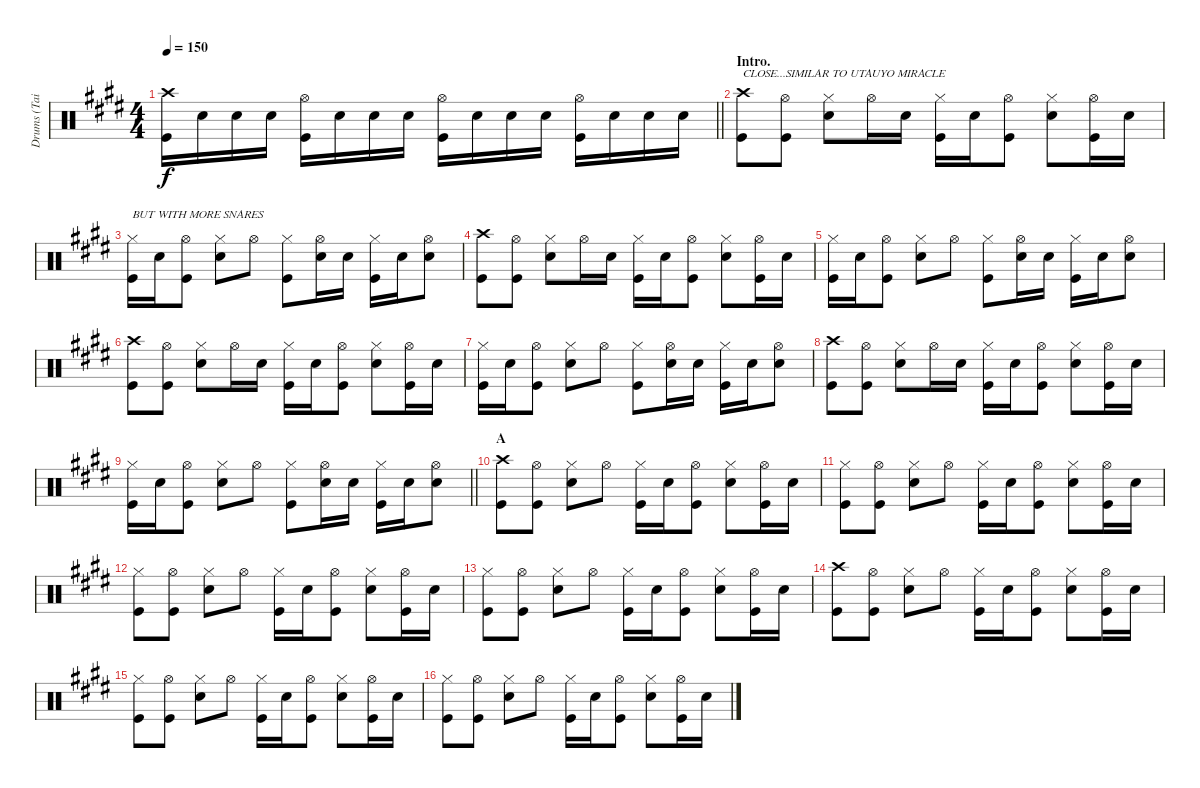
\track ("Drums (Tainaka Ritsu)" "Drums (Tai") {instrument percussion}
\staff {score}
\articulation defaults
\ts (4 4)
\tempo 150
\clef neutral
\barLineRight lightlight
\ks e
("Crash high (hit)" "Kick (hit)").16{dy f} "Snare (hit) 2".16 "Snare (hit) 2".16 "Snare (hit) 2".16 ("Hi-Hat (open)" "Kick (hit)").16 "Snare (hit) 2".16 "Snare (hit) 2".16 "Snare (hit) 2".16 ("Hi-Hat (open)" "Kick (hit)").16 "Snare (hit) 2".16 "Snare (hit) 2".16 "Snare (hit) 2".16 ("Hi-Hat (open)" "Kick (hit)").16 "Snare (hit) 2".16 "Snare (hit) 2".16 "Snare (hit) 2".16 |
\section ("" "Intro.")
("Crash high (hit)" "Kick (hit)").8{txt "CLOSE...SIMILAR TO UTAUYO MIRACLE"} ("Hi-Hat (open)" "Kick (hit)").8 ("Hi-Hat (closed)" "Snare (hit) 2").8 "Hi-Hat (open)".16 "Snare (hit) 2".16 ("Hi-Hat (closed)" "Kick (hit)").16 "Snare (hit) 2".16 ("Hi-Hat (open)" "Kick (hit)").8 ("Hi-Hat (closed)" "Snare (hit) 2").8 ("Hi-Hat (open)" "Kick (hit)").16 "Snare (hit) 2".16 |
("Hi-Hat (closed)" "Kick (hit)").16{txt "BUT WITH MORE SNARES"} "Snare (hit) 2".16 ("Hi-Hat (open)" "Kick (hit)").8 ("Hi-Hat (closed)" "Snare (hit) 2").8 "Hi-Hat (open)".8 ("Hi-Hat (closed)" "Kick (hit)").8 ("Hi-Hat (open)" "Snare (hit) 2").16 "Snare (hit) 2".16 ("Hi-Hat (closed)" "Kick (hit)").16 "Snare (hit) 2".16 ("Hi-Hat (open)" "Snare (hit) 2").8 |
("Crash high (hit)" "Kick (hit)").8 ("Hi-Hat (open)" "Kick (hit)").8 ("Hi-Hat (closed)" "Snare (hit) 2").8 "Hi-Hat (open)".16 "Snare (hit) 2".16 ("Hi-Hat (closed)" "Kick (hit)").16 "Snare (hit) 2".16 ("Hi-Hat (open)" "Kick (hit)").8 ("Hi-Hat (closed)" "Snare (hit) 2").8 ("Hi-Hat (open)" "Kick (hit)").16 "Snare (hit) 2".16 |
("Hi-Hat (closed)" "Kick (hit)").16 "Snare (hit) 2".16 ("Hi-Hat (open)" "Kick (hit)").8 ("Hi-Hat (closed)" "Snare (hit) 2").8 "Hi-Hat (open)".8 ("Hi-Hat (closed)" "Kick (hit)").8 ("Hi-Hat (open)" "Snare (hit) 2").16 "Snare (hit) 2".16 ("Hi-Hat (closed)" "Kick (hit)").16 "Snare (hit) 2".16 ("Hi-Hat (open)" "Snare (hit) 2").8 |
("Crash high (hit)" "Kick (hit)").8 ("Hi-Hat (open)" "Kick (hit)").8 ("Hi-Hat (closed)" "Snare (hit) 2").8 "Hi-Hat (open)".16 "Snare (hit) 2".16 ("Hi-Hat (closed)" "Kick (hit)").16 "Snare (hit) 2".16 ("Hi-Hat (open)" "Kick (hit)").8 ("Hi-Hat (closed)" "Snare (hit) 2").8 ("Hi-Hat (open)" "Kick (hit)").16 "Snare (hit) 2".16 |
("Hi-Hat (closed)" "Kick (hit)").16 "Snare (hit) 2".16 ("Hi-Hat (open)" "Kick (hit)").8 ("Hi-Hat (closed)" "Snare (hit) 2").8 "Hi-Hat (open)".8 ("Hi-Hat (closed)" "Kick (hit)").8 ("Hi-Hat (open)" "Snare (hit) 2").16 "Snare (hit) 2".16 ("Hi-Hat (closed)" "Kick (hit)").16 "Snare (hit) 2".16 ("Hi-Hat (open)" "Snare (hit) 2").8 |
("Crash high (hit)" "Kick (hit)").8 ("Hi-Hat (open)" "Kick (hit)").8 ("Hi-Hat (closed)" "Snare (hit) 2").8 "Hi-Hat (open)".16 "Snare (hit) 2".16 ("Hi-Hat (closed)" "Kick (hit)").16 "Snare (hit) 2".16 ("Hi-Hat (open)" "Kick (hit)").8 ("Hi-Hat (closed)" "Snare (hit) 2").8 ("Hi-Hat (open)" "Kick (hit)").16 "Snare (hit) 2".16 |
\barLineRight lightlight
("Hi-Hat (closed)" "Kick (hit)").16 "Snare (hit) 2".16 ("Hi-Hat (open)" "Kick (hit)").8 ("Hi-Hat (closed)" "Snare (hit) 2").8 "Hi-Hat (open)".8 ("Hi-Hat (closed)" "Kick (hit)").8 ("Hi-Hat (open)" "Snare (hit) 2").16 "Snare (hit) 2".16 ("Hi-Hat (closed)" "Kick (hit)").16 "Snare (hit) 2".16 ("Hi-Hat (open)" "Snare (hit) 2").8 |
\section ("" "A")
("Crash high (hit)" "Kick (hit)").8 ("Hi-Hat (open)" "Kick (hit)").8 ("Hi-Hat (closed)" "Snare (hit) 2").8 "Hi-Hat (open)".8 ("Hi-Hat (closed)" "Kick (hit)").16 "Snare (hit) 2".16 ("Hi-Hat (open)" "Kick (hit)").8 ("Hi-Hat (closed)" "Snare (hit) 2").8 ("Hi-Hat (open)" "Kick (hit)").16 "Snare (hit) 2".16 |
("Hi-Hat (closed)" "Kick (hit)").8 ("Hi-Hat (open)" "Kick (hit)").8 ("Hi-Hat (closed)" "Snare (hit) 2").8 "Hi-Hat (open)".8 ("Hi-Hat (closed)" "Kick (hit)").16 "Snare (hit) 2".16 ("Hi-Hat (open)" "Kick (hit)").8 ("Hi-Hat (closed)" "Snare (hit) 2").8 ("Hi-Hat (open)" "Kick (hit)").16 "Snare (hit) 2".16 |
("Hi-Hat (closed)" "Kick (hit)").8 ("Hi-Hat (open)" "Kick (hit)").8 ("Hi-Hat (closed)" "Snare (hit) 2").8 "Hi-Hat (open)".8 ("Hi-Hat (closed)" "Kick (hit)").16 "Snare (hit) 2".16 ("Hi-Hat (open)" "Kick (hit)").8 ("Hi-Hat (closed)" "Snare (hit) 2").8 ("Hi-Hat (open)" "Kick (hit)").16 "Snare (hit) 2".16 |
("Hi-Hat (closed)" "Kick (hit)").8 ("Hi-Hat (open)" "Kick (hit)").8 ("Hi-Hat (closed)" "Snare (hit) 2").8 "Hi-Hat (open)".8 ("Hi-Hat (closed)" "Kick (hit)").16 "Snare (hit) 2".16 ("Hi-Hat (open)" "Kick (hit)").8 ("Hi-Hat (closed)" "Snare (hit) 2").8 ("Hi-Hat (open)" "Kick (hit)").16 "Snare (hit) 2".16 |
("Crash high (hit)" "Kick (hit)").8 ("Hi-Hat (open)" "Kick (hit)").8 ("Hi-Hat (closed)" "Snare (hit) 2").8 "Hi-Hat (open)".8 ("Hi-Hat (closed)" "Kick (hit)").16 "Snare (hit) 2".16 ("Hi-Hat (open)" "Kick (hit)").8 ("Hi-Hat (closed)" "Snare (hit) 2").8 ("Hi-Hat (open)" "Kick (hit)").16 "Snare (hit) 2".16 |
("Hi-Hat (closed)" "Kick (hit)").8 ("Hi-Hat (open)" "Kick (hit)").8 ("Hi-Hat (closed)" "Snare (hit) 2").8 "Hi-Hat (open)".8 ("Hi-Hat (closed)" "Kick (hit)").16 "Snare (hit) 2".16 ("Hi-Hat (open)" "Kick (hit)").8 ("Hi-Hat (closed)" "Snare (hit) 2").8 ("Hi-Hat (open)" "Kick (hit)").16 "Snare (hit) 2".16 |
("Hi-Hat (closed)" "Kick (hit)").8 ("Hi-Hat (open)" "Kick (hit)").8 ("Hi-Hat (closed)" "Snare (hit) 2").8 "Hi-Hat (open)".8 ("Hi-Hat (closed)" "Kick (hit)").16 "Snare (hit) 2".16 ("Hi-Hat (open)" "Kick (hit)").8 ("Hi-Hat (closed)" "Snare (hit) 2").8 ("Hi-Hat (open)" "Kick (hit)").16 "Snare (hit) 2".16
